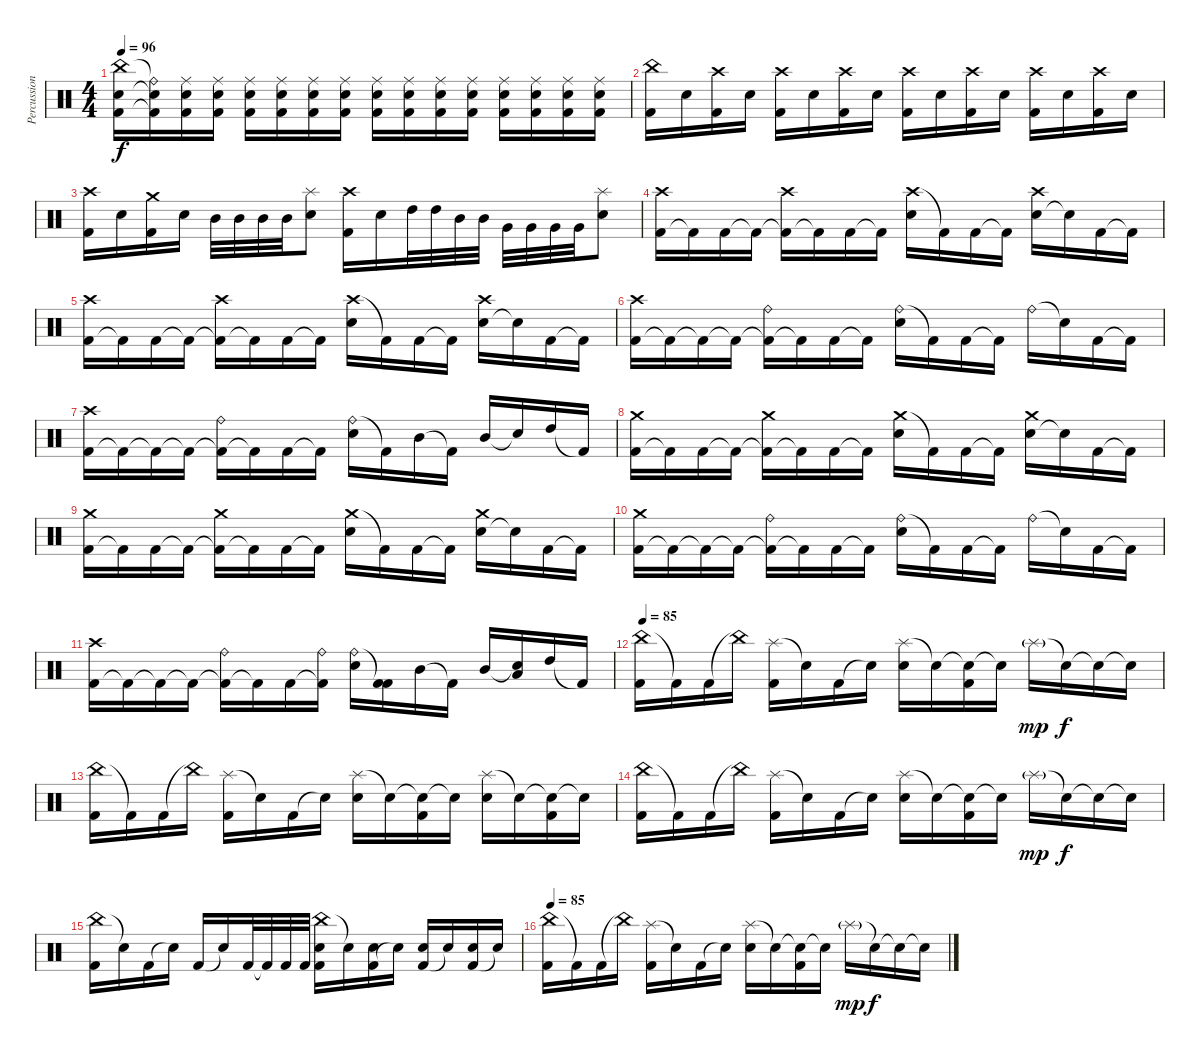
\track ("Percussion [Optional]" "Percussion") {instrument percussion}
\staff {score}
\articulation defaults
\ts (4 4)
\tempo 96
\clef neutral
\ks c
("China (hit)" "Electric Snare (hit)" "Kick (hit) 2").16{dy f} ("Ride (bell)"{t} "Electric Snare (hit)"{t} "Kick (hit) 2"{t}).16 ("Ride (middle)" "Electric Snare (hit)" "Kick (hit) 2").16 ("Ride (middle)" "Electric Snare (hit)" "Kick (hit) 2").16 ("Ride (middle)" "Electric Snare (hit)" "Kick (hit) 2").16 ("Ride (middle)" "Electric Snare (hit)" "Kick (hit) 2").16 ("Ride (middle)" "Electric Snare (hit)" "Kick (hit) 2").16 ("Ride (middle)" "Electric Snare (hit)" "Kick (hit) 2").16 ("Ride (middle)" "Electric Snare (hit)" "Kick (hit) 2").16 ("Ride (middle)" "Electric Snare (hit)" "Kick (hit) 2").16 ("Ride (middle)" "Electric Snare (hit)" "Kick (hit) 2").16 ("Ride (middle)" "Electric Snare (hit)" "Kick (hit) 2").16 ("Ride (middle)" "Electric Snare (hit)" "Kick (hit) 2").16 ("Ride (middle)" "Electric Snare (hit)" "Kick (hit) 2").16 ("Ride (middle)" "Electric Snare (hit)" "Kick (hit) 2").16 ("Ride (middle)" "Electric Snare (hit)" "Kick (hit) 2").16 |
("China (hit)" "Kick (hit) 2").16 "Electric Snare (hit)".16 ("Crash high (hit)" "Kick (hit) 2").16 "Electric Snare (hit)".16 ("Crash high (hit)" "Kick (hit) 2").16 "Electric Snare (hit)".16 ("Crash high (hit)" "Kick (hit) 2").16 "Electric Snare (hit)".16 ("Crash high (hit)" "Kick (hit) 2").16 "Electric Snare (hit)".16 ("Crash high (hit)" "Kick (hit) 2").16 "Electric Snare (hit)".16 ("Crash high (hit)" "Kick (hit) 2").16 "Electric Snare (hit)".16 ("Crash high (hit)" "Kick (hit) 2").16 "Electric Snare (hit)".16 |
("Crash high (hit)" "Kick (hit) 2").16 "Electric Snare (hit)".16 ("Crash medium (hit)" "Kick (hit) 2").16 "Electric Snare (hit)".16 "Mid Tom (hit)".32 "Mid Tom (hit)".32 "Mid Tom (hit)".32 "Mid Tom (hit)".32 ("Electric Snare (hit)" "Splash (hit)").8 ("Crash high (hit)" "Kick (hit) 2").16 "Electric Snare (hit)".16 "High Tom (hit)".32 "High Tom (hit)".32 "Mid Tom (hit)".32 "Mid Tom (hit)".32 "Very Low Tom (hit)".32 "Very Low Tom (hit)".32 "Very Low Tom (hit)".32 "Very Low Tom (hit)".32 ("Splash (hit)" "Electric Snare (hit)").8 |
("Kick (hit) 2" "Crash high (hit)").16 "Kick (hit) 2"{t}.16 "Kick (hit) 2".16 "Kick (hit) 2"{t}.16 ("Kick (hit) 2"{t} "Crash high (hit)").16 "Kick (hit) 2"{t}.16 "Kick (hit) 2".16 "Kick (hit) 2"{t}.16 ("Crash high (hit)" "Electric Snare (hit)").16 "Kick (hit) 2"{t}.16 "Kick (hit) 2".16 "Kick (hit) 2"{t}.16 ("Electric Snare (hit)" "Crash high (hit)").16 "Snare (hit)"{t}.16 "Kick (hit) 2".16 "Kick (hit) 2"{t}.16 |
("Kick (hit) 2" "Crash high (hit)").16 "Kick (hit) 2"{t}.16 "Kick (hit) 2".16 "Kick (hit) 2"{t}.16 ("Kick (hit) 2"{t} "Crash high (hit)").16 "Kick (hit) 2"{t}.16 "Kick (hit) 2".16 "Kick (hit) 2"{t}.16 ("Crash high (hit)" "Electric Snare (hit)").16 "Kick (hit) 2"{t}.16 "Kick (hit) 2".16 "Kick (hit) 2"{t}.16 ("Electric Snare (hit)" "Crash high (hit)").16 "Snare (hit)"{t}.16 "Kick (hit) 2".16 "Kick (hit) 2"{t}.16 |
("Kick (hit) 2" "Crash high (hit)").16 "Kick (hit) 2"{t}.16 "Kick (hit) 2"{t}.16 "Kick (hit) 2"{t}.16 ("Kick (hit) 2"{t} "Ride (bell)").16 "Kick (hit) 2"{t}.16 "Kick (hit) 2".16 "Kick (hit) 2"{t}.16 ("Ride (bell)" "Electric Snare (hit)").16 "Kick (hit) 2"{t}.16 "Kick (hit) 2".16 "Kick (hit) 2"{t}.16 "Ride (bell)".16 "Snare (hit)"{t}.16 "Kick (hit) 2".16 "Kick (hit) 2"{t}.16 |
("Kick (hit) 2" "Crash high (hit)").16 "Kick (hit) 2"{t}.16 "Kick (hit) 2"{t}.16 "Kick (hit) 2"{t}.16 ("Kick (hit) 2"{t} "Ride (bell)").16 "Kick (hit) 2"{t}.16 "Kick (hit) 2".16 "Kick (hit) 2"{t}.16 ("Ride (bell)" "Electric Snare (hit)").16 "Kick (hit) 2"{t}.16 "Mid Tom (hit)".16 "Kick (hit) 2"{t}.16 "Mid Tom (hit)".16 "Snare (hit)"{t}.16 "High Tom (hit)".16 "Kick (hit) 2"{t}.16 |
("Kick (hit) 2" "Crash medium (hit)").16 "Kick (hit) 2"{t}.16 "Kick (hit) 2".16 "Kick (hit) 2"{t}.16 ("Kick (hit) 2"{t} "Crash medium (hit)").16 "Kick (hit) 2"{t}.16 "Kick (hit) 2".16 "Kick (hit) 2"{t}.16 ("Crash medium (hit)" "Electric Snare (hit)").16 "Kick (hit) 2"{t}.16 "Kick (hit) 2".16 "Kick (hit) 2"{t}.16 ("Electric Snare (hit)" "Crash medium (hit)").16 "Snare (hit)"{t}.16 "Kick (hit) 2".16 "Kick (hit) 2"{t}.16 |
("Kick (hit) 2" "Crash medium (hit)").16 "Kick (hit) 2"{t}.16 "Kick (hit) 2".16 "Kick (hit) 2"{t}.16 ("Kick (hit) 2"{t} "Crash medium (hit)").16 "Kick (hit) 2"{t}.16 "Kick (hit) 2".16 "Kick (hit) 2"{t}.16 ("Crash medium (hit)" "Electric Snare (hit)").16 "Kick (hit) 2"{t}.16 "Kick (hit) 2".16 "Kick (hit) 2"{t}.16 ("Electric Snare (hit)" "Crash medium (hit)").16 "Snare (hit)"{t}.16 "Kick (hit) 2".16 "Kick (hit) 2"{t}.16 |
("Kick (hit) 2" "Crash medium (hit)").16 "Kick (hit) 2"{t}.16 "Kick (hit) 2"{t}.16 "Kick (hit) 2"{t}.16 ("Kick (hit) 2"{t} "Ride (bell)").16 "Kick (hit) 2"{t}.16 "Kick (hit) 2".16 "Kick (hit) 2"{t}.16 ("Ride (bell)" "Electric Snare (hit)").16 "Kick (hit) 2"{t}.16 "Kick (hit) 2".16 "Kick (hit) 2"{t}.16 "Ride (bell)".16 "Snare (hit)"{t}.16 "Kick (hit) 2".16 "Kick (hit) 2"{t}.16 |
("Kick (hit) 2" "Crash high (hit)").16 "Kick (hit) 2"{t}.16 "Kick (hit) 2"{t}.16 "Kick (hit) 2"{t}.16 ("Kick (hit) 2"{t} "Ride (bell)").16 "Kick (hit) 2"{t}.16 "Kick (hit) 2".16 ("Kick (hit) 2"{t} "Ride (bell)").16 ("Ride (bell)" "Electric Snare (hit)").16 ("Kick (hit) 2"{t} "Kick (hit) 2").16 "Mid Tom (hit)".16 "Kick (hit) 2"{t}.16 "Mid Tom (hit)".16 ("Snare (hit)"{t} "Low Tom (hit)").16 "High Tom (hit)".16 "Kick (hit) 2"{t}.16 |
\tempo 85
("China (hit)" "Kick (hit) 2").16 "Kick (hit) 2"{t}.16 "Kick (hit) 2".16 "China (hit)"{t}.16 ("Splash (hit)" "Kick (hit) 2").16 "Snare (hit)"{t}.16 "Kick (hit) 2".16 "Snare (hit)"{t}.16 ("Splash (hit)" "Electric Snare (hit)").16 "Snare (hit)"{t}.16 ("Snare (hit)"{t} "Kick (hit) 2").16 "Snare (hit)"{t}.16 "Splash (hit)"{g}.16{dy mp} "Snare (hit)"{t}.16{dy f} "Snare (hit)"{t}.16 "Snare (hit)"{t}.16 |
("China (hit)" "Kick (hit) 2").16 "Kick (hit) 2"{t}.16 "Kick (hit) 2".16 "China (hit)"{t}.16 ("Splash (hit)" "Kick (hit) 2").16 "Snare (hit)"{t}.16 "Kick (hit) 2".16 "Snare (hit)"{t}.16 ("Splash (hit)" "Electric Snare (hit)").16 "Snare (hit)"{t}.16 ("Snare (hit)"{t} "Kick (hit) 2").16 "Snare (hit)"{t}.16 ("Splash (hit)" "Electric Snare (hit)").16 "Snare (hit)"{t}.16 ("Snare (hit)"{t} "Kick (hit) 2").16 "Snare (hit)"{t}.16 |
("China (hit)" "Kick (hit) 2").16 "Kick (hit) 2"{t}.16 "Kick (hit) 2".16 "China (hit)"{t}.16 ("Splash (hit)" "Kick (hit) 2").16 "Snare (hit)"{t}.16 "Kick (hit) 2".16 "Snare (hit)"{t}.16 ("Splash (hit)" "Electric Snare (hit)").16 "Snare (hit)"{t}.16 ("Snare (hit)"{t} "Kick (hit) 2").16 "Snare (hit)"{t}.16 "Splash (hit)"{g}.16{dy mp} "Snare (hit)"{t}.16{dy f} "Snare (hit)"{t}.16 "Snare (hit)"{t}.16 |
("China (hit)" "Kick (hit) 2").16 "Snare (hit)"{t}.16 "Kick (hit) 2".16 "Snare (hit)"{t}.16 "Kick (hit) 2".16 "Snare (hit)"{t}.16 "Kick (hit) 2".32 "Kick (hit) 2"{t}.32 "Kick (hit) 2".32 "Kick (hit) 2".32 ("China (hit)" "Kick (hit) 2" "Electric Snare (hit)").16 "Snare (hit)"{t}.16 ("Kick (hit) 2" "Electric Snare (hit)").16 "Snare (hit)"{t}.16 ("Kick (hit) 2" "Electric Snare (hit)").16 "Snare (hit)"{t}.16 ("Kick (hit) 2" "Electric Snare (hit)").16 "Snare (hit)"{t}.16 |
\tempo 85
("China (hit)" "Kick (hit) 2").16 "Kick (hit) 2"{t}.16 "Kick (hit) 2".16 "China (hit)"{t}.16 ("Splash (hit)" "Kick (hit) 2").16 "Snare (hit)"{t}.16 "Kick (hit) 2".16 "Snare (hit)"{t}.16 ("Splash (hit)" "Electric Snare (hit)").16 "Snare (hit)"{t}.16 ("Snare (hit)"{t} "Kick (hit) 2").16 "Snare (hit)"{t}.16 "Splash (hit)"{g}.16{dy mp} "Snare (hit)"{t}.16{dy f} "Snare (hit)"{t}.16 "Snare (hit)"{t}.16
